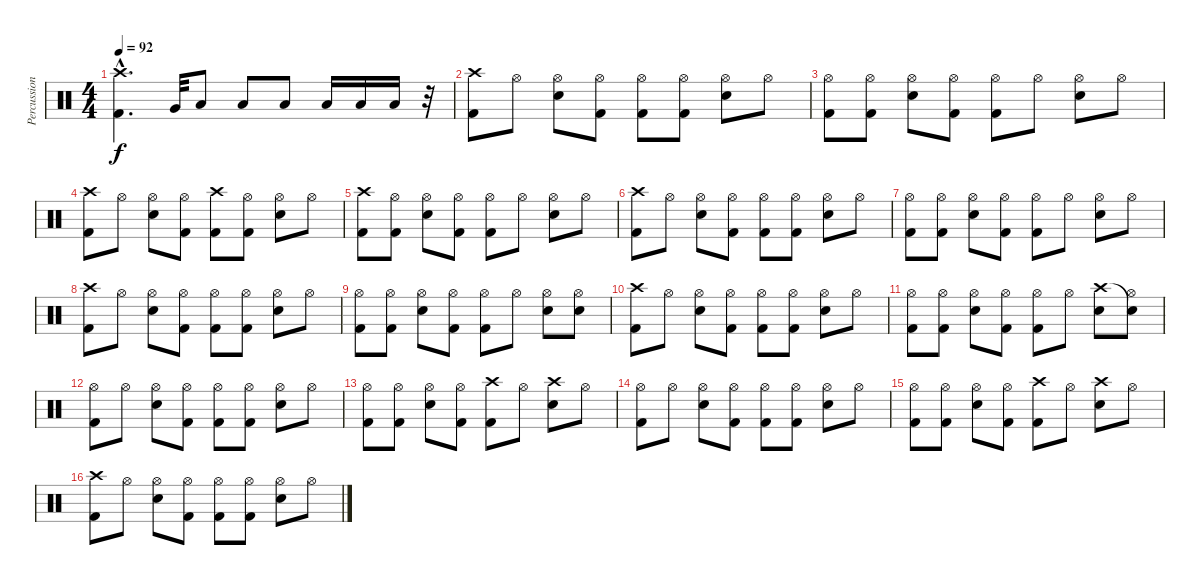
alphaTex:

\track ("Percussion" "Percussion") {instrument percussion}
\staff {score}
\articulation defaults
\ts (4 4)
\tempo 92
\clef neutral
\ks c
("Crash high (hit)"{hac} "Kick (hit) 2"{hac}).4{d dy f} "Very Low Tom (hit)".32 "Low Tom (hit)".8 "Low Tom (hit)".8 "Low Tom (hit)".8 "Low Floor Tom (hit)".16 "Low Floor Tom (hit)".16 "Low Floor Tom (hit)".16 r.32 |
("Crash high (hit)" "Kick (hit) 2").8 "Hi-Hat (open)".8 ("Hi-Hat (open)" "Electric Snare (hit)").8 ("Hi-Hat (open)" "Kick (hit) 2").8 ("Hi-Hat (open)" "Kick (hit) 2").8 ("Hi-Hat (open)" "Kick (hit) 2").8 ("Hi-Hat (open)" "Electric Snare (hit)").8 "Hi-Hat (open)".8 |
("Hi-Hat (open)" "Kick (hit) 2").8 ("Hi-Hat (open)" "Kick (hit) 2").8 ("Hi-Hat (open)" "Electric Snare (hit)").8 ("Hi-Hat (open)" "Kick (hit) 2").8 ("Hi-Hat (open)" "Kick (hit) 2").8 "Hi-Hat (open)".8 ("Hi-Hat (open)" "Electric Snare (hit)").8 "Hi-Hat (open)".8 |
("Crash high (hit)" "Kick (hit) 2").8 "Hi-Hat (open)".8 ("Hi-Hat (open)" "Electric Snare (hit)").8 ("Hi-Hat (open)" "Kick (hit) 2").8 ("Crash high (hit)" "Kick (hit) 2").8 ("Hi-Hat (open)" "Kick (hit) 2").8 ("Hi-Hat (open)" "Electric Snare (hit)").8 "Hi-Hat (open)".8 |
("Crash high (hit)" "Kick (hit) 2").8 ("Hi-Hat (open)" "Kick (hit) 2").8 ("Hi-Hat (open)" "Electric Snare (hit)").8 ("Hi-Hat (open)" "Kick (hit) 2").8 ("Hi-Hat (open)" "Kick (hit) 2").8 "Hi-Hat (open)".8 ("Hi-Hat (open)" "Electric Snare (hit)").8 "Hi-Hat (open)".8 |
("Crash high (hit)" "Kick (hit) 2").8 "Hi-Hat (open)".8 ("Hi-Hat (open)" "Electric Snare (hit)").8 ("Hi-Hat (open)" "Kick (hit) 2").8 ("Hi-Hat (open)" "Kick (hit) 2").8 ("Hi-Hat (open)" "Kick (hit) 2").8 ("Hi-Hat (open)" "Electric Snare (hit)").8 "Hi-Hat (open)".8 |
("Hi-Hat (open)" "Kick (hit) 2").8 ("Hi-Hat (open)" "Kick (hit) 2").8 ("Hi-Hat (open)" "Electric Snare (hit)").8 ("Hi-Hat (open)" "Kick (hit) 2").8 ("Hi-Hat (open)" "Kick (hit) 2").8 "Hi-Hat (open)".8 ("Hi-Hat (open)" "Electric Snare (hit)").8 "Hi-Hat (open)".8 |
("Crash high (hit)" "Kick (hit) 2").8 "Hi-Hat (open)".8 ("Hi-Hat (open)" "Electric Snare (hit)").8 ("Hi-Hat (open)" "Kick (hit) 2").8 ("Hi-Hat (open)" "Kick (hit) 2").8 ("Hi-Hat (open)" "Kick (hit) 2").8 ("Hi-Hat (open)" "Electric Snare (hit)").8 "Hi-Hat (open)".8 |
("Hi-Hat (open)" "Kick (hit) 2").8 ("Hi-Hat (open)" "Kick (hit) 2").8 ("Hi-Hat (open)" "Electric Snare (hit)").8 ("Hi-Hat (open)" "Kick (hit) 2").8 ("Hi-Hat (open)" "Kick (hit) 2").8 "Hi-Hat (open)".8 ("Hi-Hat (open)" "Electric Snare (hit)").8 ("Hi-Hat (open)" "Electric Snare (hit)").8 |
("Crash high (hit)" "Kick (hit) 2").8 "Hi-Hat (open)".8 ("Hi-Hat (open)" "Electric Snare (hit)").8 ("Hi-Hat (open)" "Kick (hit) 2").8 ("Hi-Hat (open)" "Kick (hit) 2").8 ("Hi-Hat (open)" "Kick (hit) 2").8 ("Hi-Hat (open)" "Electric Snare (hit)").8 "Hi-Hat (open)".8 |
("Hi-Hat (open)" "Kick (hit) 2").8 ("Hi-Hat (open)" "Kick (hit) 2").8 ("Hi-Hat (open)" "Electric Snare (hit)").8 ("Hi-Hat (open)" "Kick (hit) 2").8 ("Hi-Hat (open)" "Kick (hit) 2").8 "Hi-Hat (open)".8 ("Electric Snare (hit)" "Crash high (hit)").8 ("Hi-Hat (open)" "Snare (hit)"{t}).8 |
("Hi-Hat (open)" "Kick (hit) 2").8 "Hi-Hat (open)".8 ("Hi-Hat (open)" "Electric Snare (hit)").8 ("Hi-Hat (open)" "Kick (hit) 2").8 ("Hi-Hat (open)" "Kick (hit) 2").8 ("Hi-Hat (open)" "Kick (hit) 2").8 ("Hi-Hat (open)" "Electric Snare (hit)").8 "Hi-Hat (open)".8 |
("Hi-Hat (open)" "Kick (hit) 2").8 ("Hi-Hat (open)" "Kick (hit) 2").8 ("Hi-Hat (open)" "Electric Snare (hit)").8 ("Hi-Hat (open)" "Kick (hit) 2").8 ("Crash high (hit)" "Kick (hit) 2").8 "Hi-Hat (open)".8 ("Electric Snare (hit)" "Crash high (hit)").8 "Hi-Hat (open)".8 |
("Hi-Hat (open)" "Kick (hit) 2").8 "Hi-Hat (open)".8 ("Hi-Hat (open)" "Electric Snare (hit)").8 ("Hi-Hat (open)" "Kick (hit) 2").8 ("Hi-Hat (open)" "Kick (hit) 2").8 ("Hi-Hat (open)" "Kick (hit) 2").8 ("Hi-Hat (open)" "Electric Snare (hit)").8 "Hi-Hat (open)".8 |
("Hi-Hat (open)" "Kick (hit) 2").8 ("Hi-Hat (open)" "Kick (hit) 2").8 ("Hi-Hat (open)" "Electric Snare (hit)").8 ("Hi-Hat (open)" "Kick (hit) 2").8 ("Crash high (hit)" "Kick (hit) 2").8 "Hi-Hat (open)".8 ("Crash high (hit)" "Electric Snare (hit)").8 "Hi-Hat (open)".8 |
("Crash high (hit)" "Kick (hit) 2").8 "Hi-Hat (open)".8 ("Hi-Hat (open)" "Electric Snare (hit)").8 ("Hi-Hat (open)" "Kick (hit) 2").8 ("Hi-Hat (open)" "Kick (hit) 2").8 ("Hi-Hat (open)" "Kick (hit) 2").8 ("Hi-Hat (open)" "Electric Snare (hit)").8 "Hi-Hat (open)".8
